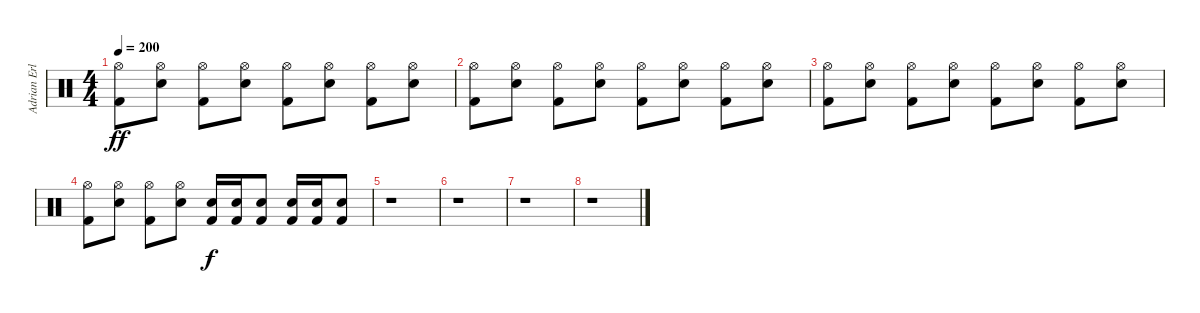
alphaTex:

\track ("Adrian Erlandsson" "Adrian Erl") {instrument percussion}
\staff {score}
\articulation defaults
\ts (4 4)
\tempo 200
\clef neutral
\ks c
("Hi-Hat (open)" "Kick (hit) 2").8{dy ff} ("Hi-Hat (open)" "Snare (hit) 2").8 ("Hi-Hat (open)" "Kick (hit) 2").8 ("Hi-Hat (open)" "Snare (hit) 2").8 ("Hi-Hat (open)" "Kick (hit) 2").8 ("Hi-Hat (open)" "Snare (hit) 2").8 ("Hi-Hat (open)" "Kick (hit) 2").8 ("Hi-Hat (open)" "Snare (hit) 2").8 |
("Hi-Hat (open)" "Kick (hit) 2").8 ("Hi-Hat (open)" "Snare (hit) 2").8 ("Hi-Hat (open)" "Kick (hit) 2").8 ("Hi-Hat (open)" "Snare (hit) 2").8 ("Hi-Hat (open)" "Kick (hit) 2").8 ("Hi-Hat (open)" "Snare (hit) 2").8 ("Hi-Hat (open)" "Kick (hit) 2").8 ("Hi-Hat (open)" "Snare (hit) 2").8 |
("Hi-Hat (open)" "Kick (hit) 2").8 ("Hi-Hat (open)" "Snare (hit) 2").8 ("Hi-Hat (open)" "Kick (hit) 2").8 ("Hi-Hat (open)" "Snare (hit) 2").8 ("Hi-Hat (open)" "Kick (hit) 2").8 ("Hi-Hat (open)" "Snare (hit) 2").8 ("Hi-Hat (open)" "Kick (hit) 2").8 ("Hi-Hat (open)" "Snare (hit) 2").8 |
("Hi-Hat (open)" "Kick (hit) 2").8 ("Hi-Hat (open)" "Snare (hit) 2").8 ("Hi-Hat (open)" "Kick (hit) 2").8 ("Hi-Hat (open)" "Snare (hit) 2").8 ("Snare (hit) 2" "Kick (hit) 2").16{dy f} ("Snare (hit) 2" "Kick (hit) 2").16 ("Snare (hit) 2" "Kick (hit) 2").8 ("Snare (hit) 2" "Kick (hit) 2").16 ("Snare (hit) 2" "Kick (hit) 2").16 ("Snare (hit) 2" "Kick (hit) 2").8 |
r.1 |
r.1 |
r.1 |
r.1
